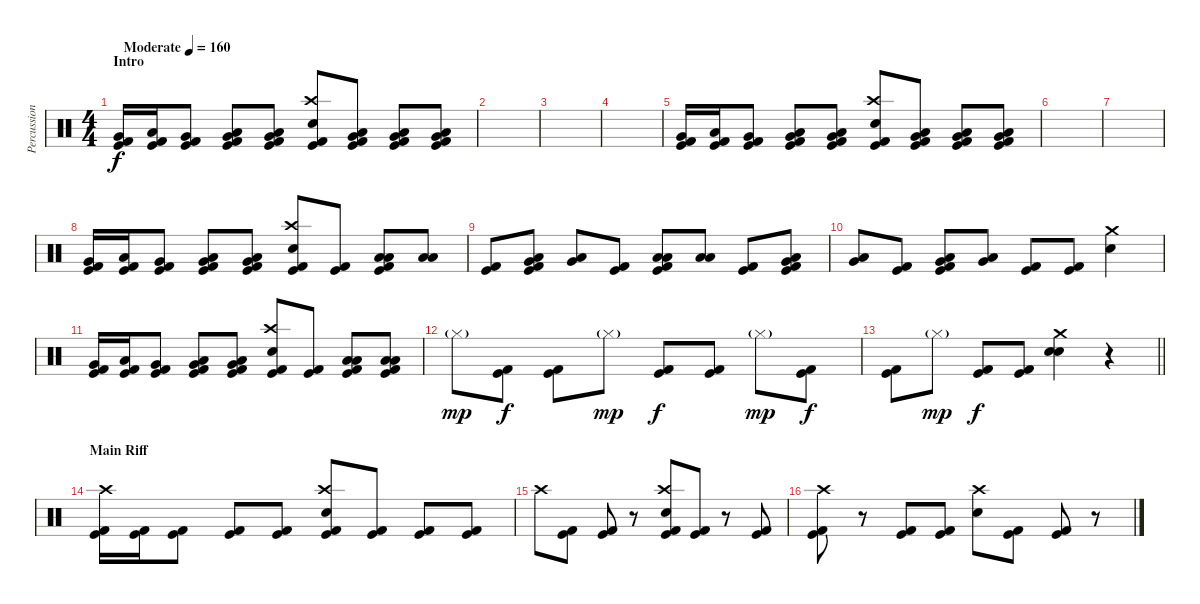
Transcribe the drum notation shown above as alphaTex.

\track ("Percussion" "Percussion") {instrument percussion}
\staff {score}
\articulation defaults
\ts (4 4)
\section ("" "Intro")
\tempo (160 "Moderate")
\clef neutral
\ks c
("Very Low Tom (hit)" "Kick (hit)" "Kick (hit) 2").16{dy f} ("Low Floor Tom (hit)" "Kick (hit)" "Kick (hit) 2").16 ("Very Low Tom (hit)" "Kick (hit)" "Kick (hit) 2").8 ("Very Low Tom (hit)" "Low Floor Tom (hit)" "Kick (hit)" "Kick (hit) 2").8 ("Very Low Tom (hit)" "Low Floor Tom (hit)" "Kick (hit)" "Kick (hit) 2").8 ("Crash high (hit)" "Electric Snare (hit)" "Kick (hit)" "Kick (hit) 2").8 ("Very Low Tom (hit)" "Low Floor Tom (hit)" "Kick (hit)" "Kick (hit) 2").8 ("Very Low Tom (hit)" "Low Floor Tom (hit)" "Kick (hit)" "Kick (hit) 2").8 ("Very Low Tom (hit)" "Low Floor Tom (hit)" "Kick (hit)" "Kick (hit) 2").8 |
|
|
|
("Very Low Tom (hit)" "Kick (hit)" "Kick (hit) 2").16 ("Low Floor Tom (hit)" "Kick (hit)" "Kick (hit) 2").16 ("Very Low Tom (hit)" "Kick (hit)" "Kick (hit) 2").8 ("Very Low Tom (hit)" "Low Floor Tom (hit)" "Kick (hit)" "Kick (hit) 2").8 ("Very Low Tom (hit)" "Low Floor Tom (hit)" "Kick (hit)" "Kick (hit) 2").8 ("Crash high (hit)" "Electric Snare (hit)" "Kick (hit)" "Kick (hit) 2").8 ("Very Low Tom (hit)" "Low Floor Tom (hit)" "Kick (hit)" "Kick (hit) 2").8 ("Very Low Tom (hit)" "Low Floor Tom (hit)" "Kick (hit)" "Kick (hit) 2").8 ("Very Low Tom (hit)" "Low Floor Tom (hit)" "Kick (hit)" "Kick (hit) 2").8 |
|
|
("Very Low Tom (hit)" "Kick (hit)" "Kick (hit) 2").16 ("Low Floor Tom (hit)" "Kick (hit)" "Kick (hit) 2").16 ("Very Low Tom (hit)" "Kick (hit)" "Kick (hit) 2").8 ("Very Low Tom (hit)" "Low Floor Tom (hit)" "Kick (hit)" "Kick (hit) 2").8 ("Very Low Tom (hit)" "Low Floor Tom (hit)" "Kick (hit)" "Kick (hit) 2").8 ("Crash high (hit)" "Electric Snare (hit)" "Kick (hit)" "Kick (hit) 2").8 ("Kick (hit)" "Kick (hit) 2").8 ("Low Tom (hit)" "Low Floor Tom (hit)" "Kick (hit)" "Kick (hit) 2").8 ("Low Tom (hit)" "Low Floor Tom (hit)").8 |
("Kick (hit)" "Kick (hit) 2").8 ("Very Low Tom (hit)" "Low Floor Tom (hit)" "Kick (hit)" "Kick (hit) 2").8 ("Very Low Tom (hit)" "Low Floor Tom (hit)").8 ("Kick (hit)" "Kick (hit) 2").8 ("Low Tom (hit)" "Low Floor Tom (hit)" "Kick (hit)" "Kick (hit) 2").8 ("Low Tom (hit)" "Low Floor Tom (hit)").8 ("Kick (hit)" "Kick (hit) 2").8 ("Very Low Tom (hit)" "Low Floor Tom (hit)" "Kick (hit)" "Kick (hit) 2").8 |
("Very Low Tom (hit)" "Low Floor Tom (hit)").8 ("Kick (hit)" "Kick (hit) 2").8 ("Low Tom (hit)" "Very Low Tom (hit)" "Kick (hit)" "Kick (hit) 2").8 ("Low Tom (hit)" "Very Low Tom (hit)").8 ("Kick (hit)" "Kick (hit) 2").8 ("Kick (hit)" "Kick (hit) 2").8 ("Crash medium (hit)" "Electric Snare (hit)").4 |
("Very Low Tom (hit)" "Kick (hit)" "Kick (hit) 2").16 ("Low Floor Tom (hit)" "Kick (hit)" "Kick (hit) 2").16 ("Very Low Tom (hit)" "Kick (hit)" "Kick (hit) 2").8 ("Very Low Tom (hit)" "Low Floor Tom (hit)" "Kick (hit)" "Kick (hit) 2").8 ("Very Low Tom (hit)" "Low Floor Tom (hit)" "Kick (hit)" "Kick (hit) 2").8 ("Crash high (hit)" "Electric Snare (hit)" "Kick (hit)" "Kick (hit) 2").8 ("Kick (hit)" "Kick (hit) 2").8 ("Low Tom (hit)" "Low Floor Tom (hit)" "Kick (hit)" "Kick (hit) 2").8 ("Low Tom (hit)" "Low Floor Tom (hit)" "Kick (hit)" "Kick (hit) 2").8 |
"Hi-Hat (closed)"{g}.8{dy mp} ("Kick (hit)" "Kick (hit) 2").8{dy f} ("Kick (hit)" "Kick (hit) 2").8 "Hi-Hat (closed)"{g}.8{dy mp} ("Kick (hit)" "Kick (hit) 2").8{dy f} ("Kick (hit)" "Kick (hit) 2").8 "Hi-Hat (closed)"{g}.8{dy mp} ("Kick (hit)" "Kick (hit) 2").8{dy f} |
\barLineRight lightlight
("Kick (hit)" "Kick (hit) 2").8 "Hi-Hat (closed)"{g}.8{dy mp} ("Kick (hit)" "Kick (hit) 2").8{dy f} ("Kick (hit)" "Kick (hit) 2").8 ("Crash medium (hit)" "Electric Snare (hit)" "Electric Snare (hit)").4 r.4 |
\section ("" "Main Riff")
("Crash high (hit)" "Kick (hit)" "Kick (hit) 2").16 ("Kick (hit)" "Kick (hit) 2").16 ("Kick (hit)" "Kick (hit) 2").8 ("Kick (hit)" "Kick (hit) 2").8 ("Kick (hit)" "Kick (hit) 2").8 ("Crash high (hit)" "Electric Snare (hit)" "Kick (hit)" "Kick (hit) 2").8 ("Kick (hit)" "Kick (hit) 2").8 ("Kick (hit)" "Kick (hit) 2").8 ("Kick (hit)" "Kick (hit) 2").8 |
"Crash high (hit)".8 ("Kick (hit)" "Kick (hit) 2").8 ("Kick (hit)" "Kick (hit) 2").8 r.8 ("Crash high (hit)" "Electric Snare (hit)" "Kick (hit)" "Kick (hit) 2").8 ("Kick (hit)" "Kick (hit) 2").8 r.8 ("Kick (hit)" "Kick (hit) 2").8 |
("Crash high (hit)" "Kick (hit)" "Kick (hit) 2").8 r.8 ("Kick (hit)" "Kick (hit) 2").8 ("Kick (hit)" "Kick (hit) 2").8 ("Crash high (hit)" "Electric Snare (hit)").8 ("Kick (hit)" "Kick (hit) 2").8 ("Kick (hit)" "Kick (hit) 2").8 r.8
